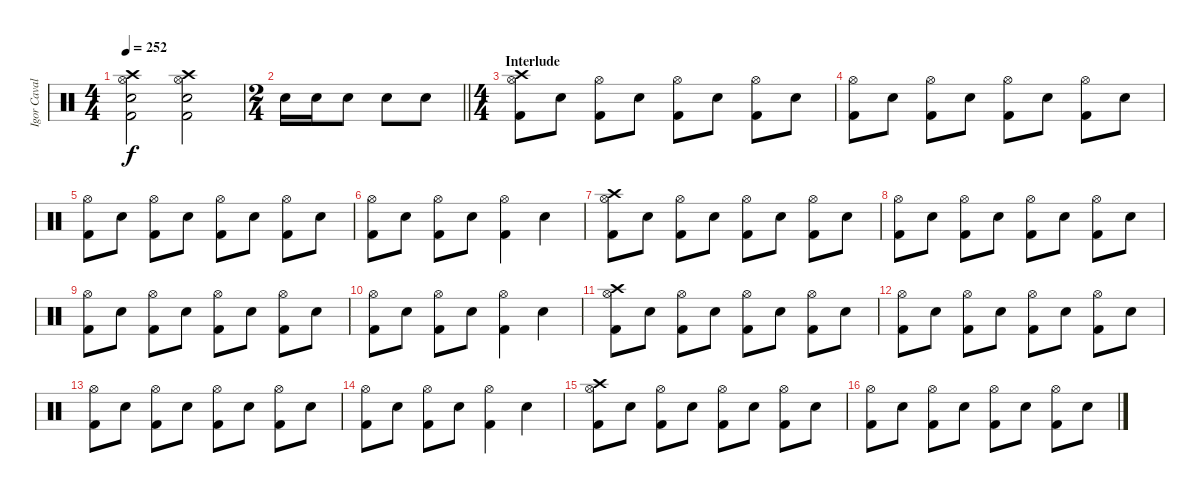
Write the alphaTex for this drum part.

\track ("Igor Cavalera" "Igor Caval") {instrument percussion}
\staff {score}
\articulation defaults
\ts (4 4)
\tempo 252
\clef neutral
\ks c
("Crash high (hit)" "Hi-Hat (open)" "Electric Snare (hit)" "Kick (hit) 2").2{dy f} ("Crash high (hit)" "Hi-Hat (open)" "Electric Snare (hit)" "Kick (hit) 2").2 |
\ts (2 4)
\barLineRight lightlight "Electric Snare (hit)".16 "Electric Snare (hit)".16 "Electric Snare (hit)".8 "Electric Snare (hit)".8 "Electric Snare (hit)".8
|
\ts (4 4)
\section ("" "Interlude")
("Crash high (hit)" "Hi-Hat (open)" "Kick (hit) 2").8 "Electric Snare (hit)".8 ("Hi-Hat (open)" "Kick (hit) 2").8 "Electric Snare (hit)".8 ("Hi-Hat (open)" "Kick (hit) 2").8 "Electric Snare (hit)".8 ("Hi-Hat (open)" "Kick (hit) 2").8 "Electric Snare (hit)".8 |
("Hi-Hat (open)" "Kick (hit) 2").8 "Electric Snare (hit)".8 ("Hi-Hat (open)" "Kick (hit) 2").8 "Electric Snare (hit)".8 ("Hi-Hat (open)" "Kick (hit) 2").8 "Electric Snare (hit)".8 ("Hi-Hat (open)" "Kick (hit) 2").8 "Electric Snare (hit)".8 |
("Hi-Hat (open)" "Kick (hit) 2").8 "Electric Snare (hit)".8 ("Hi-Hat (open)" "Kick (hit) 2").8 "Electric Snare (hit)".8 ("Hi-Hat (open)" "Kick (hit) 2").8 "Electric Snare (hit)".8 ("Hi-Hat (open)" "Kick (hit) 2").8 "Electric Snare (hit)".8 |
("Hi-Hat (open)" "Kick (hit) 2").8 "Electric Snare (hit)".8 ("Hi-Hat (open)" "Kick (hit) 2").8 "Electric Snare (hit)".8 ("Hi-Hat (open)" "Kick (hit) 2").4 "Electric Snare (hit)".4 |
("Crash high (hit)" "Hi-Hat (open)" "Kick (hit) 2").8 "Electric Snare (hit)".8 ("Hi-Hat (open)" "Kick (hit) 2").8 "Electric Snare (hit)".8 ("Hi-Hat (open)" "Kick (hit) 2").8 "Electric Snare (hit)".8 ("Hi-Hat (open)" "Kick (hit) 2").8 "Electric Snare (hit)".8 |
("Hi-Hat (open)" "Kick (hit) 2").8 "Electric Snare (hit)".8 ("Hi-Hat (open)" "Kick (hit) 2").8 "Electric Snare (hit)".8 ("Hi-Hat (open)" "Kick (hit) 2").8 "Electric Snare (hit)".8 ("Hi-Hat (open)" "Kick (hit) 2").8 "Electric Snare (hit)".8 |
("Hi-Hat (open)" "Kick (hit) 2").8 "Electric Snare (hit)".8 ("Hi-Hat (open)" "Kick (hit) 2").8 "Electric Snare (hit)".8 ("Hi-Hat (open)" "Kick (hit) 2").8 "Electric Snare (hit)".8 ("Hi-Hat (open)" "Kick (hit) 2").8 "Electric Snare (hit)".8 |
("Hi-Hat (open)" "Kick (hit) 2").8 "Electric Snare (hit)".8 ("Hi-Hat (open)" "Kick (hit) 2").8 "Electric Snare (hit)".8 ("Hi-Hat (open)" "Kick (hit) 2").4 "Electric Snare (hit)".4 |
("Crash high (hit)" "Hi-Hat (open)" "Kick (hit) 2").8 "Electric Snare (hit)".8 ("Hi-Hat (open)" "Kick (hit) 2").8 "Electric Snare (hit)".8 ("Hi-Hat (open)" "Kick (hit) 2").8 "Electric Snare (hit)".8 ("Hi-Hat (open)" "Kick (hit) 2").8 "Electric Snare (hit)".8 |
("Hi-Hat (open)" "Kick (hit) 2").8 "Electric Snare (hit)".8 ("Hi-Hat (open)" "Kick (hit) 2").8 "Electric Snare (hit)".8 ("Hi-Hat (open)" "Kick (hit) 2").8 "Electric Snare (hit)".8 ("Hi-Hat (open)" "Kick (hit) 2").8 "Electric Snare (hit)".8 |
("Hi-Hat (open)" "Kick (hit) 2").8 "Electric Snare (hit)".8 ("Hi-Hat (open)" "Kick (hit) 2").8 "Electric Snare (hit)".8 ("Hi-Hat (open)" "Kick (hit) 2").8 "Electric Snare (hit)".8 ("Hi-Hat (open)" "Kick (hit) 2").8 "Electric Snare (hit)".8 |
("Hi-Hat (open)" "Kick (hit) 2").8 "Electric Snare (hit)".8 ("Hi-Hat (open)" "Kick (hit) 2").8 "Electric Snare (hit)".8 ("Hi-Hat (open)" "Kick (hit) 2").4 "Electric Snare (hit)".4 |
("Crash high (hit)" "Hi-Hat (open)" "Kick (hit) 2").8 "Electric Snare (hit)".8 ("Hi-Hat (open)" "Kick (hit) 2").8 "Electric Snare (hit)".8 ("Hi-Hat (open)" "Kick (hit) 2").8 "Electric Snare (hit)".8 ("Hi-Hat (open)" "Kick (hit) 2").8 "Electric Snare (hit)".8 |
("Hi-Hat (open)" "Kick (hit) 2").8 "Electric Snare (hit)".8 ("Hi-Hat (open)" "Kick (hit) 2").8 "Electric Snare (hit)".8 ("Hi-Hat (open)" "Kick (hit) 2").8 "Electric Snare (hit)".8 ("Hi-Hat (open)" "Kick (hit) 2").8 "Electric Snare (hit)".8
